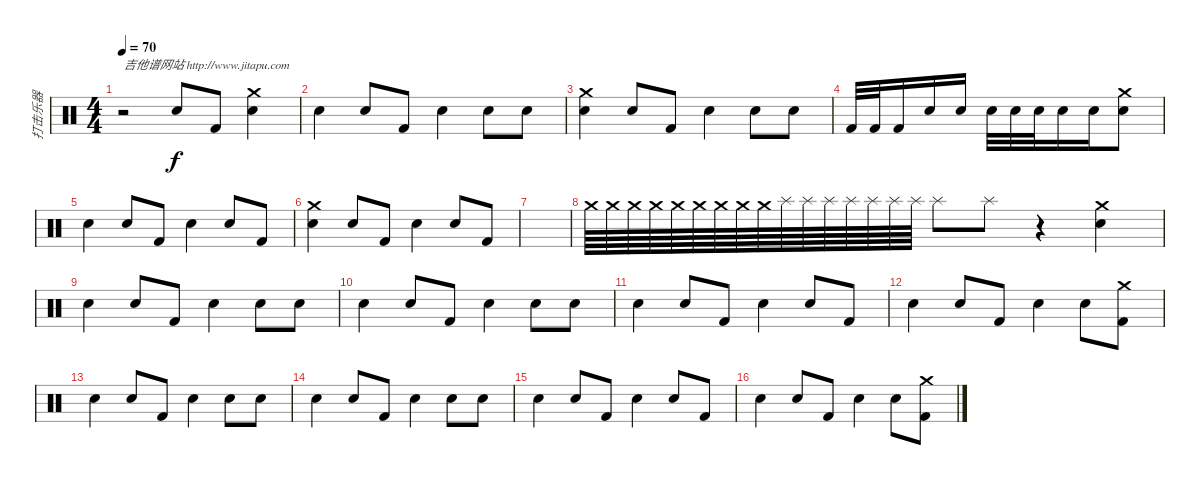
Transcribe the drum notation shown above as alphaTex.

\track ("打击乐器" "打击乐器") {instrument percussion}
\staff {score}
\articulation defaults
\ts (4 4)
\tempo 70
\clef neutral
\ks c
r.2{txt "吉他谱网站 http://www.jitapu.com" dy f} "Electric Snare (hit)".8 "Kick (hit) 2".8 ("Snare (hit) 2" "Crash medium (hit)").4 |
"Snare (hit) 2".4 "Electric Snare (hit)".8 "Kick (hit) 2".8 "Snare (hit) 2".4 "Electric Snare (hit)".8 "Snare (hit) 2".8 |
("Crash medium (hit)" "Snare (hit) 2").4 "Electric Snare (hit)".8 "Kick (hit) 2".8 "Snare (hit) 2".4 "Electric Snare (hit)".8 "Snare (hit) 2".8 |
"Kick (hit) 2".32 "Kick (hit) 2".32 "Kick (hit) 2".16 "Snare (hit) 2".16 "Snare (hit) 2".16 "Snare (hit) 2".32 "Electric Snare (hit)".32 "Electric Snare (hit)".32 "Electric Snare (hit)".16 "Snare (hit) 2".16 ("Crash medium (hit)" "Snare (hit) 2").8 |
"Snare (hit) 2".4 "Electric Snare (hit)".8 "Kick (hit) 2".8 "Snare (hit) 2".4 "Electric Snare (hit)".8 "Kick (hit) 2".8 |
("Crash medium (hit)" "Snare (hit) 2").4 "Electric Snare (hit)".8 "Kick (hit) 2".8 "Snare (hit) 2".4 "Electric Snare (hit)".8 "Kick (hit) 2".8 |
|
"Crash medium (hit)".64 "Crash medium (hit)".64 "Crash medium (hit)".64 "Crash medium (hit)".64 "Crash medium (hit)".64 "Crash medium (hit)".64 "Crash medium (hit)".64 "Crash medium (hit)".64 "Crash medium (hit)".64 "Splash (hit)".64 "Splash (hit)".64 "Splash (hit)".64 "Splash (hit)".64 "Splash (hit)".64 "Splash (hit)".64 "Splash (hit)".64 "Splash (hit)".8 "Splash (hit)".8 r.4 ("Snare (hit) 2" "Crash medium (hit)").4 |
"Snare (hit) 2".4 "Electric Snare (hit)".8 "Kick (hit) 2".8 "Snare (hit) 2".4 "Electric Snare (hit)".8 "Snare (hit) 2".8 |
"Snare (hit) 2".4 "Electric Snare (hit)".8 "Kick (hit) 2".8 "Snare (hit) 2".4 "Electric Snare (hit)".8 "Snare (hit) 2".8 |
"Snare (hit) 2".4 "Electric Snare (hit)".8 "Kick (hit) 2".8 "Snare (hit) 2".4 "Electric Snare (hit)".8 "Kick (hit) 2".8 |
"Snare (hit) 2".4 "Electric Snare (hit)".8 "Kick (hit) 2".8 "Snare (hit) 2".4 "Electric Snare (hit)".8 ("Crash medium (hit)" "Kick (hit) 2").8 |
"Snare (hit) 2".4 "Electric Snare (hit)".8 "Kick (hit) 2".8 "Snare (hit) 2".4 "Electric Snare (hit)".8 "Snare (hit) 2".8 |
"Snare (hit) 2".4 "Electric Snare (hit)".8 "Kick (hit) 2".8 "Snare (hit) 2".4 "Electric Snare (hit)".8 "Snare (hit) 2".8 |
"Snare (hit) 2".4 "Electric Snare (hit)".8 "Kick (hit) 2".8 "Snare (hit) 2".4 "Electric Snare (hit)".8 "Kick (hit) 2".8 |
"Snare (hit) 2".4 "Electric Snare (hit)".8 "Kick (hit) 2".8 "Snare (hit) 2".4 "Electric Snare (hit)".8 ("Crash medium (hit)" "Kick (hit) 2").8
